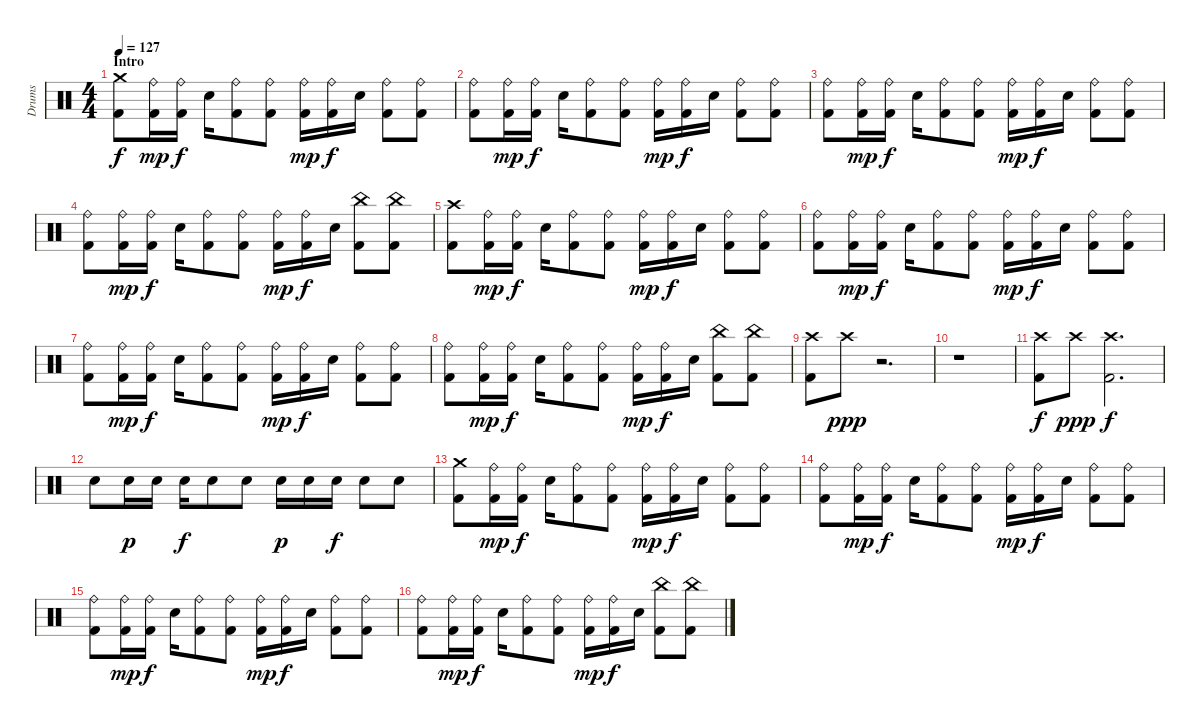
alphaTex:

\track ("Drums" "Drums") {instrument percussion}
\staff {score}
\articulation defaults
\ts (4 4)
\section ("" "Intro")
\tempo 127
\clef neutral
\ks c
("Kick (hit) 2" "Crash medium (hit)").8{dy f} ("Kick (hit) 2" "Ride (bell)").16{dy mp} ("Kick (hit) 2" "Ride (bell)").16{dy f} "Electric Snare (hit)".16 ("Kick (hit) 2" "Ride (bell)").8 ("Kick (hit) 2" "Ride (bell)").8 ("Kick (hit) 2" "Ride (bell)").16{dy mp} ("Kick (hit) 2" "Ride (bell)").16{dy f} "Electric Snare (hit)".16 ("Kick (hit) 2" "Ride (bell)").8 ("Kick (hit) 2" "Ride (bell)").8 |
("Kick (hit) 2" "Ride (bell)").8 ("Kick (hit) 2" "Ride (bell)").16{dy mp} ("Kick (hit) 2" "Ride (bell)").16{dy f} "Electric Snare (hit)".16 ("Kick (hit) 2" "Ride (bell)").8 ("Kick (hit) 2" "Ride (bell)").8 ("Kick (hit) 2" "Ride (bell)").16{dy mp} ("Kick (hit) 2" "Ride (bell)").16{dy f} "Electric Snare (hit)".16 ("Kick (hit) 2" "Ride (bell)").8 ("Kick (hit) 2" "Ride (bell)").8 |
("Kick (hit) 2" "Ride (bell)").8 ("Kick (hit) 2" "Ride (bell)").16{dy mp} ("Kick (hit) 2" "Ride (bell)").16{dy f} "Electric Snare (hit)".16 ("Kick (hit) 2" "Ride (bell)").8 ("Kick (hit) 2" "Ride (bell)").8 ("Kick (hit) 2" "Ride (bell)").16{dy mp} ("Kick (hit) 2" "Ride (bell)").16{dy f} "Electric Snare (hit)".16 ("Kick (hit) 2" "Ride (bell)").8 ("Kick (hit) 2" "Ride (bell)").8 |
("Kick (hit) 2" "Ride (bell)").8 ("Kick (hit) 2" "Ride (bell)").16{dy mp} ("Kick (hit) 2" "Ride (bell)").16{dy f} "Electric Snare (hit)".16 ("Kick (hit) 2" "Ride (bell)").8 ("Kick (hit) 2" "Ride (bell)").8 ("Kick (hit) 2" "Ride (bell)").16{dy mp} ("Kick (hit) 2" "Ride (bell)").16{dy f} "Electric Snare (hit)".16 ("Kick (hit) 2" "China (hit)").8 ("Kick (hit) 2" "China (hit)").8 |
("Kick (hit) 2" "Crash high (hit)").8 ("Kick (hit) 2" "Ride (bell)").16{dy mp} ("Kick (hit) 2" "Ride (bell)").16{dy f} "Electric Snare (hit)".16 ("Kick (hit) 2" "Ride (bell)").8 ("Kick (hit) 2" "Ride (bell)").8 ("Kick (hit) 2" "Ride (bell)").16{dy mp} ("Kick (hit) 2" "Ride (bell)").16{dy f} "Electric Snare (hit)".16 ("Kick (hit) 2" "Ride (bell)").8 ("Kick (hit) 2" "Ride (bell)").8 |
("Kick (hit) 2" "Ride (bell)").8 ("Kick (hit) 2" "Ride (bell)").16{dy mp} ("Kick (hit) 2" "Ride (bell)").16{dy f} "Electric Snare (hit)".16 ("Kick (hit) 2" "Ride (bell)").8 ("Kick (hit) 2" "Ride (bell)").8 ("Kick (hit) 2" "Ride (bell)").16{dy mp} ("Kick (hit) 2" "Ride (bell)").16{dy f} "Electric Snare (hit)".16 ("Kick (hit) 2" "Ride (bell)").8 ("Kick (hit) 2" "Ride (bell)").8 |
("Kick (hit) 2" "Ride (bell)").8 ("Kick (hit) 2" "Ride (bell)").16{dy mp} ("Kick (hit) 2" "Ride (bell)").16{dy f} "Electric Snare (hit)".16 ("Kick (hit) 2" "Ride (bell)").8 ("Kick (hit) 2" "Ride (bell)").8 ("Kick (hit) 2" "Ride (bell)").16{dy mp} ("Kick (hit) 2" "Ride (bell)").16{dy f} "Electric Snare (hit)".16 ("Kick (hit) 2" "Ride (bell)").8 ("Kick (hit) 2" "Ride (bell)").8 |
("Kick (hit) 2" "Ride (bell)").8 ("Kick (hit) 2" "Ride (bell)").16{dy mp} ("Kick (hit) 2" "Ride (bell)").16{dy f} "Electric Snare (hit)".16 ("Kick (hit) 2" "Ride (bell)").8 ("Kick (hit) 2" "Ride (bell)").8 ("Kick (hit) 2" "Ride (bell)").16{dy mp} ("Kick (hit) 2" "Ride (bell)").16{dy f} "Electric Snare (hit)".16 ("Kick (hit) 2" "China (hit)").8 ("Kick (hit) 2" "China (hit)").8 |
("Kick (hit) 2" "Crash high (hit)").8 "Crash high (hit)".8{dy ppp} r.2{d} |
r.1 |
("Kick (hit) 2" "Crash high (hit)").8{dy f} "Crash high (hit)".8{dy ppp} ("Kick (hit) 2" "Crash high (hit)").2{d dy f} |
"Electric Snare (hit)".8 "Electric Snare (hit)".16{dy p} "Electric Snare (hit)".16 "Electric Snare (hit)".16{dy f} "Electric Snare (hit)".8 "Electric Snare (hit)".8 "Electric Snare (hit)".16{dy p} "Electric Snare (hit)".16 "Electric Snare (hit)".16{dy f} "Electric Snare (hit)".8 "Electric Snare (hit)".8 |
("Kick (hit) 2" "Crash medium (hit)").8 ("Kick (hit) 2" "Ride (bell)").16{dy mp} ("Kick (hit) 2" "Ride (bell)").16{dy f} "Electric Snare (hit)".16 ("Kick (hit) 2" "Ride (bell)").8 ("Kick (hit) 2" "Ride (bell)").8 ("Kick (hit) 2" "Ride (bell)").16{dy mp} ("Kick (hit) 2" "Ride (bell)").16{dy f} "Electric Snare (hit)".16 ("Kick (hit) 2" "Ride (bell)").8 ("Kick (hit) 2" "Ride (bell)").8 |
("Kick (hit) 2" "Ride (bell)").8 ("Kick (hit) 2" "Ride (bell)").16{dy mp} ("Kick (hit) 2" "Ride (bell)").16{dy f} "Electric Snare (hit)".16 ("Kick (hit) 2" "Ride (bell)").8 ("Kick (hit) 2" "Ride (bell)").8 ("Kick (hit) 2" "Ride (bell)").16{dy mp} ("Kick (hit) 2" "Ride (bell)").16{dy f} "Electric Snare (hit)".16 ("Kick (hit) 2" "Ride (bell)").8 ("Kick (hit) 2" "Ride (bell)").8 |
("Kick (hit) 2" "Ride (bell)").8 ("Kick (hit) 2" "Ride (bell)").16{dy mp} ("Kick (hit) 2" "Ride (bell)").16{dy f} "Electric Snare (hit)".16 ("Kick (hit) 2" "Ride (bell)").8 ("Kick (hit) 2" "Ride (bell)").8 ("Kick (hit) 2" "Ride (bell)").16{dy mp} ("Kick (hit) 2" "Ride (bell)").16{dy f} "Electric Snare (hit)".16 ("Kick (hit) 2" "Ride (bell)").8 ("Kick (hit) 2" "Ride (bell)").8 |
("Kick (hit) 2" "Ride (bell)").8 ("Kick (hit) 2" "Ride (bell)").16{dy mp} ("Kick (hit) 2" "Ride (bell)").16{dy f} "Electric Snare (hit)".16 ("Kick (hit) 2" "Ride (bell)").8 ("Kick (hit) 2" "Ride (bell)").8 ("Kick (hit) 2" "Ride (bell)").16{dy mp} ("Kick (hit) 2" "Ride (bell)").16{dy f} "Electric Snare (hit)".16 ("Kick (hit) 2" "China (hit)").8 ("Kick (hit) 2" "China (hit)").8
